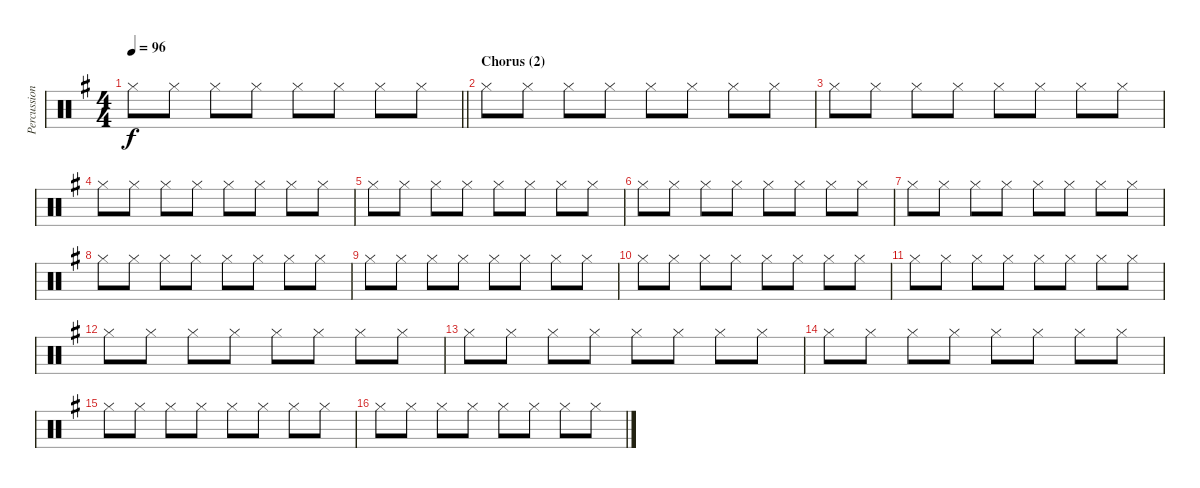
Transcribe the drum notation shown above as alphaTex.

\track ("Percussion" "Percussion") {instrument percussion}
\staff {score}
\articulation defaults
\ts (4 4)
\tempo 96
\clef neutral
\barLineRight lightlight
\ks eminor "Hi-Hat (closed)".8{dy f} "Hi-Hat (closed)".8 "Hi-Hat (closed)".8 "Hi-Hat (closed)".8 "Hi-Hat (closed)".8 "Hi-Hat (closed)".8 "Hi-Hat (closed)".8 "Hi-Hat (closed)".8
|
\section ("" "Chorus (2)")
"Hi-Hat (closed)".8 "Hi-Hat (closed)".8 "Hi-Hat (closed)".8 "Hi-Hat (closed)".8 "Hi-Hat (closed)".8 "Hi-Hat (closed)".8 "Hi-Hat (closed)".8 "Hi-Hat (closed)".8 |
"Hi-Hat (closed)".8 "Hi-Hat (closed)".8 "Hi-Hat (closed)".8 "Hi-Hat (closed)".8 "Hi-Hat (closed)".8 "Hi-Hat (closed)".8 "Hi-Hat (closed)".8 "Hi-Hat (closed)".8 |
"Hi-Hat (closed)".8 "Hi-Hat (closed)".8 "Hi-Hat (closed)".8 "Hi-Hat (closed)".8 "Hi-Hat (closed)".8 "Hi-Hat (closed)".8 "Hi-Hat (closed)".8 "Hi-Hat (closed)".8 |
"Hi-Hat (closed)".8 "Hi-Hat (closed)".8 "Hi-Hat (closed)".8 "Hi-Hat (closed)".8 "Hi-Hat (closed)".8 "Hi-Hat (closed)".8 "Hi-Hat (closed)".8 "Hi-Hat (closed)".8 |
"Hi-Hat (closed)".8 "Hi-Hat (closed)".8 "Hi-Hat (closed)".8 "Hi-Hat (closed)".8 "Hi-Hat (closed)".8 "Hi-Hat (closed)".8 "Hi-Hat (closed)".8 "Hi-Hat (closed)".8 |
"Hi-Hat (closed)".8 "Hi-Hat (closed)".8 "Hi-Hat (closed)".8 "Hi-Hat (closed)".8 "Hi-Hat (closed)".8 "Hi-Hat (closed)".8 "Hi-Hat (closed)".8 "Hi-Hat (closed)".8 |
"Hi-Hat (closed)".8 "Hi-Hat (closed)".8 "Hi-Hat (closed)".8 "Hi-Hat (closed)".8 "Hi-Hat (closed)".8 "Hi-Hat (closed)".8 "Hi-Hat (closed)".8 "Hi-Hat (closed)".8 |
"Hi-Hat (closed)".8 "Hi-Hat (closed)".8 "Hi-Hat (closed)".8 "Hi-Hat (closed)".8 "Hi-Hat (closed)".8 "Hi-Hat (closed)".8 "Hi-Hat (closed)".8 "Hi-Hat (closed)".8 |
"Hi-Hat (closed)".8 "Hi-Hat (closed)".8 "Hi-Hat (closed)".8 "Hi-Hat (closed)".8 "Hi-Hat (closed)".8 "Hi-Hat (closed)".8 "Hi-Hat (closed)".8 "Hi-Hat (closed)".8 |
"Hi-Hat (closed)".8 "Hi-Hat (closed)".8 "Hi-Hat (closed)".8 "Hi-Hat (closed)".8 "Hi-Hat (closed)".8 "Hi-Hat (closed)".8 "Hi-Hat (closed)".8 "Hi-Hat (closed)".8 |
"Hi-Hat (closed)".8 "Hi-Hat (closed)".8 "Hi-Hat (closed)".8 "Hi-Hat (closed)".8 "Hi-Hat (closed)".8 "Hi-Hat (closed)".8 "Hi-Hat (closed)".8 "Hi-Hat (closed)".8 |
"Hi-Hat (closed)".8 "Hi-Hat (closed)".8 "Hi-Hat (closed)".8 "Hi-Hat (closed)".8 "Hi-Hat (closed)".8 "Hi-Hat (closed)".8 "Hi-Hat (closed)".8 "Hi-Hat (closed)".8 |
"Hi-Hat (closed)".8 "Hi-Hat (closed)".8 "Hi-Hat (closed)".8 "Hi-Hat (closed)".8 "Hi-Hat (closed)".8 "Hi-Hat (closed)".8 "Hi-Hat (closed)".8 "Hi-Hat (closed)".8 |
"Hi-Hat (closed)".8 "Hi-Hat (closed)".8 "Hi-Hat (closed)".8 "Hi-Hat (closed)".8 "Hi-Hat (closed)".8 "Hi-Hat (closed)".8 "Hi-Hat (closed)".8 "Hi-Hat (closed)".8 |
"Hi-Hat (closed)".8 "Hi-Hat (closed)".8 "Hi-Hat (closed)".8 "Hi-Hat (closed)".8 "Hi-Hat (closed)".8 "Hi-Hat (closed)".8 "Hi-Hat (closed)".8 "Hi-Hat (closed)".8
